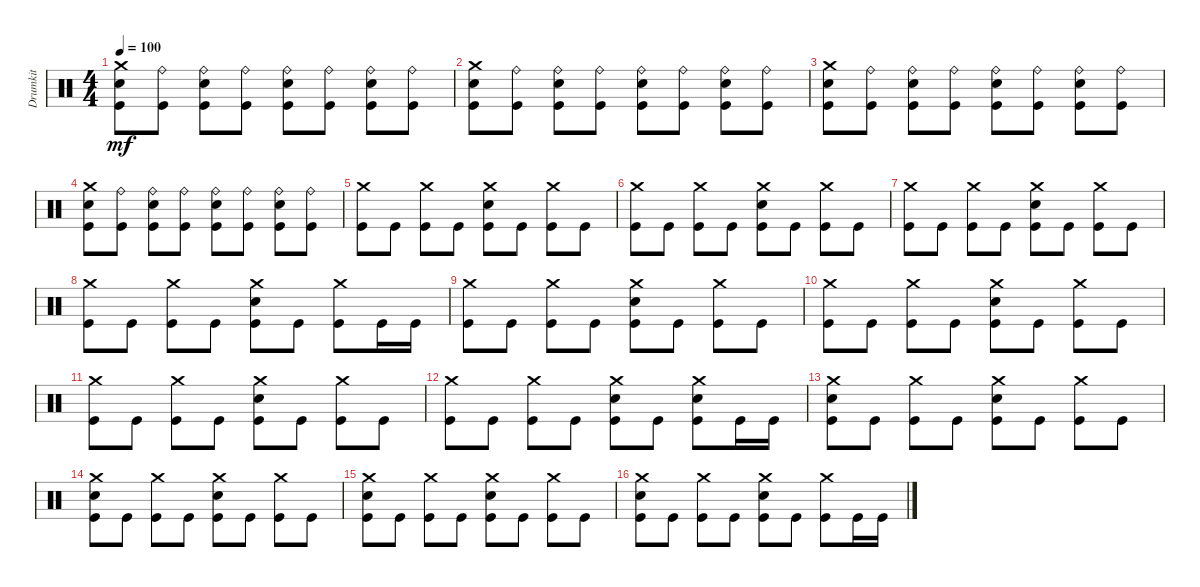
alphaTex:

\track ("Drumkit" "Drumkit") {instrument percussion}
\staff {score}
\articulation defaults
\ts (4 4)
\tempo 100
\clef neutral
\ks c
("Snare (hit) 2" "Kick (hit)" "Crash medium (hit)").8{dy mf} ("Kick (hit)" "Ride (bell)").8 ("Snare (hit) 2" "Kick (hit)" "Ride (bell)").8 ("Kick (hit)" "Ride (bell)").8 ("Kick (hit)" "Snare (hit) 2" "Ride (bell)").8 ("Kick (hit)" "Ride (bell)").8 ("Kick (hit)" "Snare (hit) 2" "Ride (bell)").8 ("Kick (hit)" "Ride (bell)").8 |
("Snare (hit) 2" "Kick (hit)" "Crash medium (hit)").8 ("Kick (hit)" "Ride (bell)").8 ("Snare (hit) 2" "Kick (hit)" "Ride (bell)").8 ("Kick (hit)" "Ride (bell)").8 ("Kick (hit)" "Snare (hit) 2" "Ride (bell)").8 ("Kick (hit)" "Ride (bell)").8 ("Kick (hit)" "Snare (hit) 2" "Ride (bell)").8 ("Kick (hit)" "Ride (bell)").8 |
("Snare (hit) 2" "Kick (hit)" "Crash medium (hit)").8 ("Kick (hit)" "Ride (bell)").8 ("Snare (hit) 2" "Kick (hit)" "Ride (bell)").8 ("Kick (hit)" "Ride (bell)").8 ("Kick (hit)" "Snare (hit) 2" "Ride (bell)").8 ("Kick (hit)" "Ride (bell)").8 ("Kick (hit)" "Snare (hit) 2" "Ride (bell)").8 ("Kick (hit)" "Ride (bell)").8 |
("Snare (hit) 2" "Kick (hit)" "Crash medium (hit)").8 ("Kick (hit)" "Ride (bell)").8 ("Snare (hit) 2" "Kick (hit)" "Ride (bell)").8 ("Kick (hit)" "Ride (bell)").8 ("Kick (hit)" "Snare (hit) 2" "Ride (bell)").8 ("Kick (hit)" "Ride (bell)").8 ("Kick (hit)" "Snare (hit) 2" "Ride (bell)").8 ("Kick (hit)" "Ride (bell)").8 |
("Kick (hit)" "Crash medium (hit)").8 "Kick (hit)".8 ("Kick (hit)" "Crash medium (hit)").8 "Kick (hit)".8 ("Kick (hit)" "Snare (hit) 2" "Crash medium (hit)").8 "Kick (hit)".8 ("Kick (hit)" "Crash medium (hit)").8 "Kick (hit)".8 |
("Kick (hit)" "Crash medium (hit)").8 "Kick (hit)".8 ("Kick (hit)" "Crash medium (hit)").8 "Kick (hit)".8 ("Kick (hit)" "Snare (hit) 2" "Crash medium (hit)").8 "Kick (hit)".8 ("Kick (hit)" "Crash medium (hit)").8 "Kick (hit)".8 |
("Kick (hit)" "Crash medium (hit)").8 "Kick (hit)".8 ("Kick (hit)" "Crash medium (hit)").8 "Kick (hit)".8 ("Kick (hit)" "Snare (hit) 2" "Crash medium (hit)").8 "Kick (hit)".8 ("Kick (hit)" "Crash medium (hit)").8 "Kick (hit)".8 |
("Kick (hit)" "Crash medium (hit)").8 "Kick (hit)".8 ("Kick (hit)" "Crash medium (hit)").8 "Kick (hit)".8 ("Kick (hit)" "Snare (hit) 2" "Crash medium (hit)").8 "Kick (hit)".8 ("Kick (hit)" "Crash medium (hit)").8 "Kick (hit)".16 "Kick (hit)".16 |
("Kick (hit)" "Crash medium (hit)").8 "Kick (hit)".8 ("Kick (hit)" "Crash medium (hit)").8 "Kick (hit)".8 ("Kick (hit)" "Snare (hit) 2" "Crash medium (hit)").8 "Kick (hit)".8 ("Kick (hit)" "Crash medium (hit)").8 "Kick (hit)".8 |
("Kick (hit)" "Crash medium (hit)").8 "Kick (hit)".8 ("Kick (hit)" "Crash medium (hit)").8 "Kick (hit)".8 ("Kick (hit)" "Snare (hit) 2" "Crash medium (hit)").8 "Kick (hit)".8 ("Kick (hit)" "Crash medium (hit)").8 "Kick (hit)".8 |
("Kick (hit)" "Crash medium (hit)").8 "Kick (hit)".8 ("Kick (hit)" "Crash medium (hit)").8 "Kick (hit)".8 ("Kick (hit)" "Snare (hit) 2" "Crash medium (hit)").8 "Kick (hit)".8 ("Kick (hit)" "Crash medium (hit)").8 "Kick (hit)".8 |
("Kick (hit)" "Crash medium (hit)").8 "Kick (hit)".8 ("Kick (hit)" "Crash medium (hit)").8 "Kick (hit)".8 ("Kick (hit)" "Snare (hit) 2" "Crash medium (hit)").8 "Kick (hit)".8 ("Kick (hit)" "Crash medium (hit)" "Snare (hit) 2").8 "Kick (hit)".16 "Kick (hit)".16 |
("Kick (hit)" "Crash medium (hit)" "Snare (hit) 2").8 "Kick (hit)".8 ("Kick (hit)" "Crash medium (hit)").8 "Kick (hit)".8 ("Kick (hit)" "Snare (hit) 2" "Crash medium (hit)").8 "Kick (hit)".8 ("Kick (hit)" "Crash medium (hit)").8 "Kick (hit)".8 |
("Kick (hit)" "Crash medium (hit)" "Snare (hit) 2").8 "Kick (hit)".8 ("Kick (hit)" "Crash medium (hit)").8 "Kick (hit)".8 ("Kick (hit)" "Snare (hit) 2" "Crash medium (hit)").8 "Kick (hit)".8 ("Kick (hit)" "Crash medium (hit)").8 "Kick (hit)".8 |
("Kick (hit)" "Crash medium (hit)" "Snare (hit) 2").8 "Kick (hit)".8 ("Kick (hit)" "Crash medium (hit)").8 "Kick (hit)".8 ("Kick (hit)" "Snare (hit) 2" "Crash medium (hit)").8 "Kick (hit)".8 ("Kick (hit)" "Crash medium (hit)").8 "Kick (hit)".8 |
("Kick (hit)" "Crash medium (hit)" "Snare (hit) 2").8 "Kick (hit)".8 ("Kick (hit)" "Crash medium (hit)").8 "Kick (hit)".8 ("Kick (hit)" "Snare (hit) 2" "Crash medium (hit)").8 "Kick (hit)".8 ("Kick (hit)" "Crash medium (hit)").8 "Kick (hit)".16 "Kick (hit)".16
